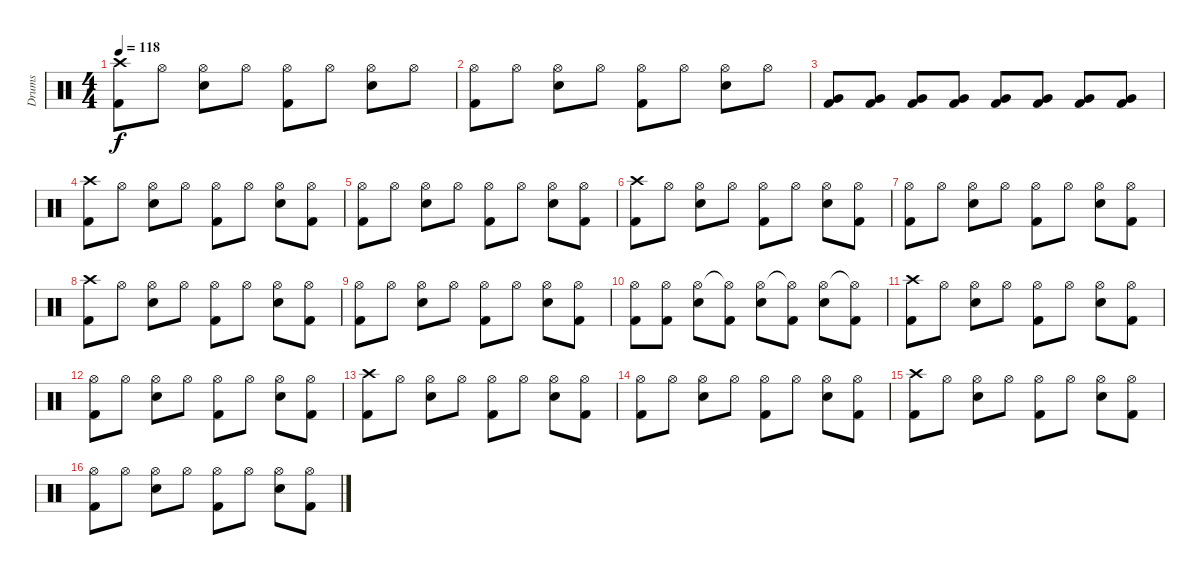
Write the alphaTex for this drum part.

\track ("Drums" "Drums") {instrument percussion}
\staff {score}
\articulation defaults
\ts (4 4)
\tempo 118
\clef neutral
\ks c
("Crash high (hit)" "Kick (hit) 2").8{dy f} "Hi-Hat (open)".8 ("Hi-Hat (open)" "Snare (hit) 2").8 "Hi-Hat (open)".8 ("Hi-Hat (open)" "Kick (hit) 2").8 "Hi-Hat (open)".8 ("Hi-Hat (open)" "Snare (hit) 2").8 "Hi-Hat (open)".8 |
("Hi-Hat (open)" "Kick (hit) 2").8 "Hi-Hat (open)".8 ("Hi-Hat (open)" "Snare (hit) 2").8 "Hi-Hat (open)".8 ("Hi-Hat (open)" "Kick (hit) 2").8 "Hi-Hat (open)".8 ("Hi-Hat (open)" "Snare (hit) 2").8 "Hi-Hat (open)".8 |
("Very Low Tom (hit)" "Kick (hit) 2").8 ("Very Low Tom (hit)" "Kick (hit) 2").8 ("Very Low Tom (hit)" "Kick (hit) 2").8 ("Very Low Tom (hit)" "Kick (hit) 2").8 ("Very Low Tom (hit)" "Kick (hit) 2").8 ("Very Low Tom (hit)" "Kick (hit) 2").8 ("Very Low Tom (hit)" "Kick (hit) 2").8 ("Very Low Tom (hit)" "Kick (hit) 2").8 |
("Crash high (hit)" "Kick (hit) 2").8 "Hi-Hat (open)".8 ("Hi-Hat (open)" "Snare (hit) 2").8 "Hi-Hat (open)".8 ("Hi-Hat (open)" "Kick (hit) 2").8 "Hi-Hat (open)".8 ("Hi-Hat (open)" "Snare (hit) 2").8 ("Hi-Hat (open)" "Kick (hit) 2").8 |
("Hi-Hat (open)" "Kick (hit) 2").8 "Hi-Hat (open)".8 ("Hi-Hat (open)" "Snare (hit) 2").8 "Hi-Hat (open)".8 ("Hi-Hat (open)" "Kick (hit) 2").8 "Hi-Hat (open)".8 ("Hi-Hat (open)" "Snare (hit) 2").8 ("Hi-Hat (open)" "Kick (hit) 2").8 |
("Crash high (hit)" "Kick (hit) 2").8 "Hi-Hat (open)".8 ("Hi-Hat (open)" "Snare (hit) 2").8 "Hi-Hat (open)".8 ("Hi-Hat (open)" "Kick (hit) 2").8 "Hi-Hat (open)".8 ("Hi-Hat (open)" "Snare (hit) 2").8 ("Hi-Hat (open)" "Kick (hit) 2").8 |
("Hi-Hat (open)" "Kick (hit) 2").8 "Hi-Hat (open)".8 ("Hi-Hat (open)" "Snare (hit) 2").8 "Hi-Hat (open)".8 ("Hi-Hat (open)" "Kick (hit) 2").8 "Hi-Hat (open)".8 ("Hi-Hat (open)" "Snare (hit) 2").8 ("Hi-Hat (open)" "Kick (hit) 2").8 |
("Crash high (hit)" "Kick (hit) 2").8 "Hi-Hat (open)".8 ("Hi-Hat (open)" "Snare (hit) 2").8 "Hi-Hat (open)".8 ("Hi-Hat (open)" "Kick (hit) 2").8 "Hi-Hat (open)".8 ("Hi-Hat (open)" "Snare (hit) 2").8 ("Hi-Hat (open)" "Kick (hit) 2").8 |
("Hi-Hat (open)" "Kick (hit) 2").8 "Hi-Hat (open)".8 ("Hi-Hat (open)" "Snare (hit) 2").8 "Hi-Hat (open)".8 ("Hi-Hat (open)" "Kick (hit) 2").8 "Hi-Hat (open)".8 ("Hi-Hat (open)" "Snare (hit) 2").8 ("Hi-Hat (open)" "Kick (hit) 2").8 |
("Hi-Hat (open)" "Kick (hit) 2").8 ("Hi-Hat (open)" "Kick (hit) 2").8 ("Hi-Hat (open)" "Snare (hit) 2").8 ("Hi-Hat (open)"{t} "Kick (hit) 2").8 ("Hi-Hat (open)" "Snare (hit) 2").8 ("Hi-Hat (open)"{t} "Kick (hit) 2").8 ("Hi-Hat (open)" "Snare (hit) 2").8 ("Hi-Hat (open)"{t} "Kick (hit) 2").8 |
("Crash high (hit)" "Kick (hit) 2").8 "Hi-Hat (open)".8 ("Hi-Hat (open)" "Snare (hit) 2").8 "Hi-Hat (open)".8 ("Hi-Hat (open)" "Kick (hit) 2").8 "Hi-Hat (open)".8 ("Hi-Hat (open)" "Snare (hit) 2").8 ("Hi-Hat (open)" "Kick (hit) 2").8 |
("Hi-Hat (open)" "Kick (hit) 2").8 "Hi-Hat (open)".8 ("Hi-Hat (open)" "Snare (hit) 2").8 "Hi-Hat (open)".8 ("Hi-Hat (open)" "Kick (hit) 2").8 "Hi-Hat (open)".8 ("Hi-Hat (open)" "Snare (hit) 2").8 ("Hi-Hat (open)" "Kick (hit) 2").8 |
("Crash high (hit)" "Kick (hit) 2").8 "Hi-Hat (open)".8 ("Hi-Hat (open)" "Snare (hit) 2").8 "Hi-Hat (open)".8 ("Hi-Hat (open)" "Kick (hit) 2").8 "Hi-Hat (open)".8 ("Hi-Hat (open)" "Snare (hit) 2").8 ("Hi-Hat (open)" "Kick (hit) 2").8 |
("Hi-Hat (open)" "Kick (hit) 2").8 "Hi-Hat (open)".8 ("Hi-Hat (open)" "Snare (hit) 2").8 "Hi-Hat (open)".8 ("Hi-Hat (open)" "Kick (hit) 2").8 "Hi-Hat (open)".8 ("Hi-Hat (open)" "Snare (hit) 2").8 ("Hi-Hat (open)" "Kick (hit) 2").8 |
("Crash high (hit)" "Kick (hit) 2").8 "Hi-Hat (open)".8 ("Hi-Hat (open)" "Snare (hit) 2").8 "Hi-Hat (open)".8 ("Hi-Hat (open)" "Kick (hit) 2").8 "Hi-Hat (open)".8 ("Hi-Hat (open)" "Snare (hit) 2").8 ("Hi-Hat (open)" "Kick (hit) 2").8 |
("Hi-Hat (open)" "Kick (hit) 2").8 "Hi-Hat (open)".8 ("Hi-Hat (open)" "Snare (hit) 2").8 "Hi-Hat (open)".8 ("Hi-Hat (open)" "Kick (hit) 2").8 "Hi-Hat (open)".8 ("Hi-Hat (open)" "Snare (hit) 2").8 ("Hi-Hat (open)" "Kick (hit) 2").8
